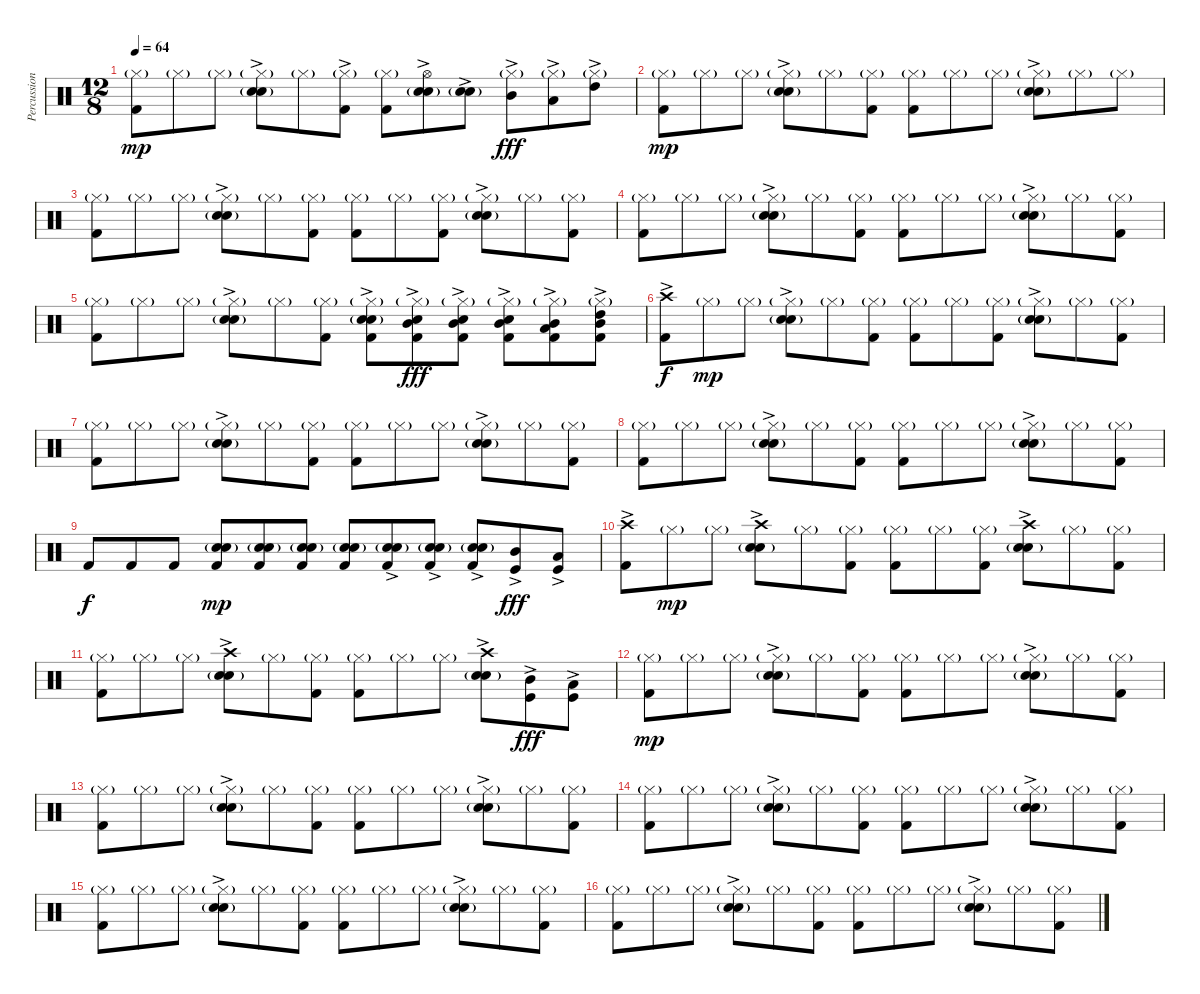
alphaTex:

\track ("Percussion" "Percussion") {instrument percussion}
\staff {score}
\articulation defaults
\ts (12 8)
\tempo 64
\clef neutral
\ks c
("Hi-Hat (closed)"{g} "Kick (hit) 2").8{dy mp} "Hi-Hat (closed)"{g}.8 "Hi-Hat (closed)"{g}.8 ("Hi-Hat (closed)"{g ac} "Electric Snare (hit)"{ac} "Snare (hit) 2"{g}).8 "Hi-Hat (closed)"{g}.8 ("Hi-Hat (closed)"{g ac} "Kick (hit) 2").8 ("Hi-Hat (closed)"{g} "Kick (hit) 2").8 ("Hi-Hat (open)"{ac} "Electric Snare (hit)" "Snare (hit) 2"{g}).8 ("Electric Snare (hit)"{ac} "Snare (hit) 2"{g}).8 ("Hi-Hat (closed)"{g ac} "Mid Tom (hit)"{ac}).8{dy fff} ("Hi-Hat (closed)"{g ac} "Low Tom (hit)"{ac}).8 ("Hi-Hat (closed)"{g} "High Tom (hit)"{ac}).8 |
("Hi-Hat (closed)"{g} "Kick (hit) 2").8{dy mp} "Hi-Hat (closed)"{g}.8 "Hi-Hat (closed)"{g}.8 ("Hi-Hat (closed)"{g} "Electric Snare (hit)"{ac} "Snare (hit) 2"{g}).8 "Hi-Hat (closed)"{g}.8 ("Hi-Hat (closed)"{g} "Kick (hit) 2").8 ("Hi-Hat (closed)"{g} "Kick (hit) 2").8 "Hi-Hat (closed)"{g}.8 "Hi-Hat (closed)"{g}.8 ("Hi-Hat (closed)"{g} "Electric Snare (hit)"{ac} "Snare (hit) 2"{g}).8 "Hi-Hat (closed)"{g}.8 "Hi-Hat (closed)"{g}.8 |
("Hi-Hat (closed)"{g} "Kick (hit) 2").8 "Hi-Hat (closed)"{g}.8 "Hi-Hat (closed)"{g}.8 ("Hi-Hat (closed)"{g} "Electric Snare (hit)"{ac} "Snare (hit) 2"{g}).8 "Hi-Hat (closed)"{g}.8 ("Hi-Hat (closed)"{g} "Kick (hit) 2").8 ("Hi-Hat (closed)"{g} "Kick (hit) 2").8 "Hi-Hat (closed)"{g}.8 ("Hi-Hat (closed)"{g} "Kick (hit) 2").8 ("Hi-Hat (closed)"{g} "Electric Snare (hit)"{ac} "Snare (hit) 2"{g}).8 "Hi-Hat (closed)"{g}.8 ("Hi-Hat (closed)"{g} "Kick (hit) 2").8 |
("Hi-Hat (closed)"{g} "Kick (hit) 2").8 "Hi-Hat (closed)"{g}.8 "Hi-Hat (closed)"{g}.8 ("Hi-Hat (closed)"{g} "Electric Snare (hit)"{ac} "Snare (hit) 2"{g}).8 "Hi-Hat (closed)"{g}.8 ("Hi-Hat (closed)"{g} "Kick (hit) 2").8 ("Hi-Hat (closed)"{g} "Kick (hit) 2").8 "Hi-Hat (closed)"{g}.8 "Hi-Hat (closed)"{g}.8 ("Hi-Hat (closed)"{g} "Electric Snare (hit)"{ac} "Snare (hit) 2"{g}).8 "Hi-Hat (closed)"{g}.8 ("Hi-Hat (closed)"{g} "Kick (hit) 2").8 |
("Hi-Hat (closed)"{g} "Kick (hit) 2").8 "Hi-Hat (closed)"{g}.8 "Hi-Hat (closed)"{g}.8 ("Hi-Hat (closed)"{g ac} "Electric Snare (hit)"{ac} "Snare (hit) 2"{g}).8 "Hi-Hat (closed)"{g}.8 ("Hi-Hat (closed)"{g} "Kick (hit) 2").8 ("Hi-Hat (closed)"{g ac} "Electric Snare (hit)" "Snare (hit) 2"{g} "Kick (hit) 2").8 ("Hi-Hat (closed)"{g ac} "Mid Tom (hit)" "Electric Snare (hit)"{ac} "Kick (hit) 2").8{dy fff} ("Hi-Hat (closed)"{g} "Mid Tom (hit)"{ac} "Electric Snare (hit)"{ac} "Kick (hit) 2").8 ("Hi-Hat (closed)"{g} "Mid Tom (hit)"{ac} "Electric Snare (hit)"{ac} "Kick (hit) 2").8 ("Hi-Hat (closed)"{g} "Mid Tom (hit)" "Low Tom (hit)"{ac} "Kick (hit) 2").8 ("Hi-Hat (closed)"{g} "High Tom (hit)"{ac} "Mid Tom (hit)"{ac} "Kick (hit) 2").8 |
("Crash high (hit)"{ac} "Kick (hit) 2").8{dy f} "Hi-Hat (closed)"{g}.8{dy mp} "Hi-Hat (closed)"{g}.8 ("Hi-Hat (closed)"{g ac} "Electric Snare (hit)"{ac} "Snare (hit) 2"{g}).8 "Hi-Hat (closed)"{g}.8 ("Hi-Hat (closed)"{g} "Kick (hit) 2").8 ("Hi-Hat (closed)"{g} "Kick (hit) 2").8 "Hi-Hat (closed)"{g}.8 ("Hi-Hat (closed)"{g} "Kick (hit) 2").8 ("Hi-Hat (closed)"{g} "Electric Snare (hit)"{ac} "Snare (hit) 2"{g}).8 "Hi-Hat (closed)"{g}.8 ("Hi-Hat (closed)"{g} "Kick (hit) 2").8 |
("Hi-Hat (closed)"{g} "Kick (hit) 2").8 "Hi-Hat (closed)"{g}.8 "Hi-Hat (closed)"{g}.8 ("Hi-Hat (closed)"{g} "Electric Snare (hit)"{ac} "Snare (hit) 2"{g}).8 "Hi-Hat (closed)"{g}.8 ("Hi-Hat (closed)"{g} "Kick (hit) 2").8 ("Hi-Hat (closed)"{g} "Kick (hit) 2").8 "Hi-Hat (closed)"{g}.8 "Hi-Hat (closed)"{g}.8 ("Hi-Hat (closed)"{g} "Electric Snare (hit)"{ac} "Snare (hit) 2"{g}).8 "Hi-Hat (closed)"{g}.8 ("Hi-Hat (closed)"{g} "Kick (hit) 2").8 |
("Hi-Hat (closed)"{g} "Kick (hit) 2").8 "Hi-Hat (closed)"{g}.8 "Hi-Hat (closed)"{g}.8 ("Hi-Hat (closed)"{g} "Electric Snare (hit)"{ac} "Snare (hit) 2"{g}).8 "Hi-Hat (closed)"{g}.8 ("Hi-Hat (closed)"{g} "Kick (hit) 2").8 ("Hi-Hat (closed)"{g} "Kick (hit) 2").8 "Hi-Hat (closed)"{g}.8 "Hi-Hat (closed)"{g}.8 ("Hi-Hat (closed)"{g} "Electric Snare (hit)"{ac} "Snare (hit) 2"{g}).8 "Hi-Hat (closed)"{g}.8 ("Hi-Hat (closed)"{g} "Kick (hit) 2").8 |
"Kick (hit) 2".8{dy f} "Kick (hit) 2".8 "Kick (hit) 2".8 ("Electric Snare (hit)"{g} "Snare (hit) 2"{g} "Kick (hit) 2").8{dy mp} ("Electric Snare (hit)"{g} "Snare (hit) 2"{g} "Kick (hit) 2").8 ("Electric Snare (hit)"{g} "Snare (hit) 2"{g} "Kick (hit) 2").8 ("Electric Snare (hit)"{g} "Snare (hit) 2"{g} "Kick (hit) 2").8 ("Electric Snare (hit)"{g ac} "Snare (hit) 2"{g} "Kick (hit) 2").8 ("Electric Snare (hit)"{ac} "Snare (hit) 2"{g} "Kick (hit) 2").8 ("Electric Snare (hit)"{ac} "Snare (hit) 2"{g} "Kick (hit) 2").8 ("Mid Tom (hit)"{ac} "Kick (hit)").8{dy fff} ("Low Tom (hit)"{ac} "Kick (hit)").8 |
("Crash high (hit)"{ac} "Kick (hit) 2").8 "Hi-Hat (closed)"{g}.8{dy mp} "Hi-Hat (closed)"{g}.8 ("Crash high (hit)"{ac} "Electric Snare (hit)"{ac} "Snare (hit) 2"{g}).8 "Hi-Hat (closed)"{g}.8 ("Hi-Hat (closed)"{g} "Kick (hit) 2").8 ("Hi-Hat (closed)"{g} "Kick (hit) 2").8 "Hi-Hat (closed)"{g}.8 ("Hi-Hat (closed)"{g} "Kick (hit) 2").8 ("Crash high (hit)" "Electric Snare (hit)"{ac} "Snare (hit) 2"{g}).8 "Hi-Hat (closed)"{g}.8 ("Hi-Hat (closed)"{g} "Kick (hit) 2").8 |
("Hi-Hat (closed)"{g} "Kick (hit) 2").8 "Hi-Hat (closed)"{g}.8 "Hi-Hat (closed)"{g}.8 ("Crash high (hit)"{ac} "Electric Snare (hit)"{ac} "Snare (hit) 2"{g}).8 "Hi-Hat (closed)"{g}.8 ("Hi-Hat (closed)"{g} "Kick (hit) 2").8 ("Hi-Hat (closed)"{g} "Kick (hit) 2").8 "Hi-Hat (closed)"{g}.8 "Hi-Hat (closed)"{g}.8 ("Crash high (hit)"{ac} "Electric Snare (hit)"{ac} "Snare (hit) 2"{g}).8 ("Mid Tom (hit)"{ac} "Kick (hit)").8{dy fff} ("Low Tom (hit)"{ac} "Kick (hit)").8 |
("Hi-Hat (closed)"{g} "Kick (hit) 2").8{dy mp} "Hi-Hat (closed)"{g}.8 "Hi-Hat (closed)"{g}.8 ("Hi-Hat (closed)"{g} "Electric Snare (hit)"{ac} "Snare (hit) 2"{g}).8 "Hi-Hat (closed)"{g}.8 ("Hi-Hat (closed)"{g} "Kick (hit) 2").8 ("Hi-Hat (closed)"{g} "Kick (hit) 2").8 "Hi-Hat (closed)"{g}.8 "Hi-Hat (closed)"{g}.8 ("Hi-Hat (closed)"{g} "Electric Snare (hit)"{ac} "Snare (hit) 2"{g}).8 "Hi-Hat (closed)"{g}.8 ("Hi-Hat (closed)"{g} "Kick (hit) 2").8 |
("Hi-Hat (closed)"{g} "Kick (hit) 2").8 "Hi-Hat (closed)"{g}.8 "Hi-Hat (closed)"{g}.8 ("Hi-Hat (closed)"{g} "Electric Snare (hit)"{ac} "Snare (hit) 2"{g}).8 "Hi-Hat (closed)"{g}.8 ("Hi-Hat (closed)"{g} "Kick (hit) 2").8 ("Hi-Hat (closed)"{g} "Kick (hit) 2").8 "Hi-Hat (closed)"{g}.8 "Hi-Hat (closed)"{g}.8 ("Hi-Hat (closed)"{g} "Electric Snare (hit)"{ac} "Snare (hit) 2"{g}).8 "Hi-Hat (closed)"{g}.8 ("Hi-Hat (closed)"{g} "Kick (hit) 2").8 |
("Hi-Hat (closed)"{g} "Kick (hit) 2").8 "Hi-Hat (closed)"{g}.8 "Hi-Hat (closed)"{g}.8 ("Hi-Hat (closed)"{g} "Electric Snare (hit)"{ac} "Snare (hit) 2"{g}).8 "Hi-Hat (closed)"{g}.8 ("Hi-Hat (closed)"{g} "Kick (hit) 2").8 ("Hi-Hat (closed)"{g} "Kick (hit) 2").8 "Hi-Hat (closed)"{g}.8 "Hi-Hat (closed)"{g}.8 ("Hi-Hat (closed)"{g} "Electric Snare (hit)"{ac} "Snare (hit) 2"{g}).8 "Hi-Hat (closed)"{g}.8 ("Hi-Hat (closed)"{g} "Kick (hit) 2").8 |
("Hi-Hat (closed)"{g} "Kick (hit) 2").8 "Hi-Hat (closed)"{g}.8 "Hi-Hat (closed)"{g}.8 ("Hi-Hat (closed)"{g} "Electric Snare (hit)"{ac} "Snare (hit) 2"{g}).8 "Hi-Hat (closed)"{g}.8 ("Hi-Hat (closed)"{g} "Kick (hit) 2").8 ("Hi-Hat (closed)"{g} "Kick (hit) 2").8 "Hi-Hat (closed)"{g}.8 "Hi-Hat (closed)"{g}.8 ("Hi-Hat (closed)"{g} "Electric Snare (hit)"{ac} "Snare (hit) 2"{g}).8 "Hi-Hat (closed)"{g}.8 ("Hi-Hat (closed)"{g} "Kick (hit) 2").8 |
("Hi-Hat (closed)"{g} "Kick (hit) 2").8 "Hi-Hat (closed)"{g}.8 "Hi-Hat (closed)"{g}.8 ("Hi-Hat (closed)"{g} "Electric Snare (hit)"{ac} "Snare (hit) 2"{g}).8 "Hi-Hat (closed)"{g}.8 ("Hi-Hat (closed)"{g} "Kick (hit) 2").8 ("Hi-Hat (closed)"{g} "Kick (hit) 2").8 "Hi-Hat (closed)"{g}.8 "Hi-Hat (closed)"{g}.8 ("Hi-Hat (closed)"{g} "Electric Snare (hit)"{ac} "Snare (hit) 2"{g}).8 "Hi-Hat (closed)"{g}.8 ("Hi-Hat (closed)"{g} "Kick (hit) 2").8
